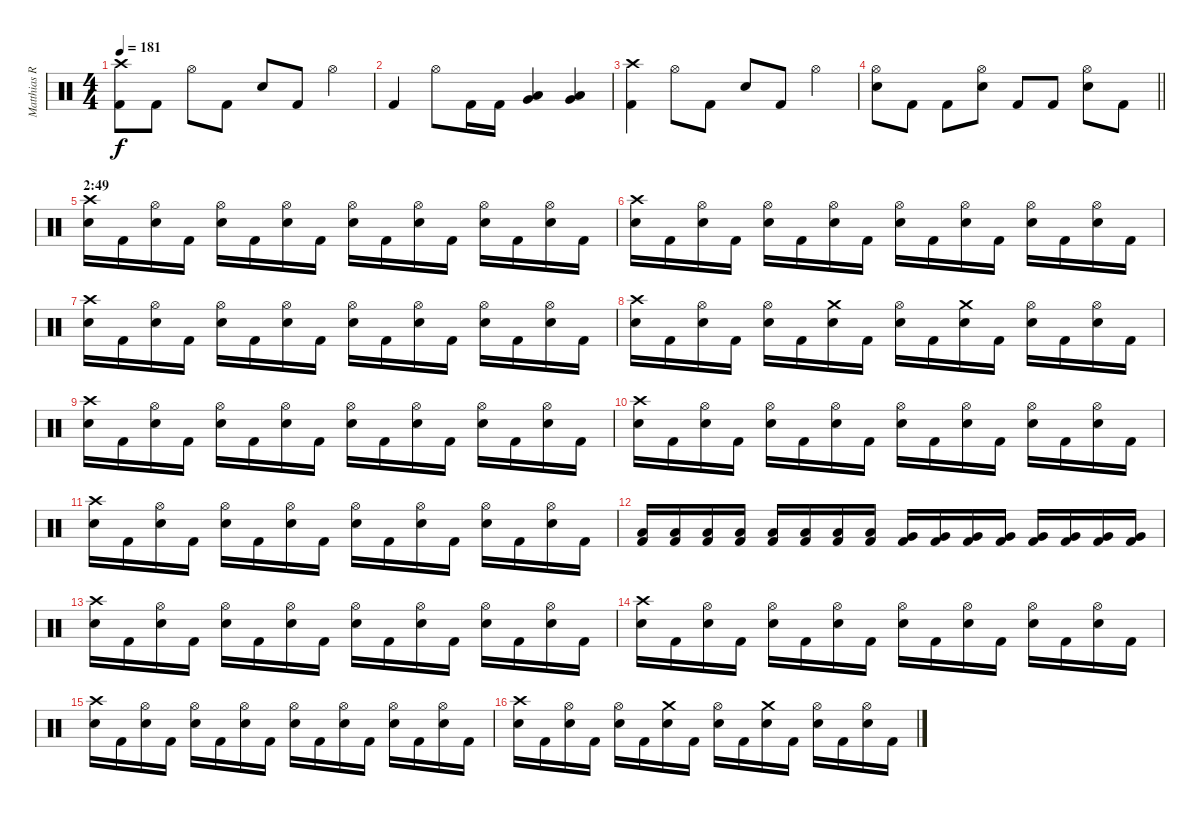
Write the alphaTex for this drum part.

\track ("Matthias R." "Matthias R") {instrument percussion}
\staff {score}
\articulation defaults
\ts (4 4)
\tempo 181
\clef neutral
\ks c
("Kick (hit) 2" "Crash high (hit)").8{dy f} "Kick (hit) 2".8 "Hi-Hat (open)".8 "Kick (hit) 2".8 "Snare (hit) 2".8 "Kick (hit) 2".8 "Hi-Hat (open)".4 |
"Kick (hit) 2".4 "Hi-Hat (open)".8 "Kick (hit) 2".16 "Kick (hit) 2".16 ("Low Tom (hit)" "Very Low Tom (hit)").4 ("Low Tom (hit)" "Very Low Tom (hit)").4 |
("Kick (hit) 2" "Crash high (hit)").4 "Hi-Hat (open)".8 "Kick (hit) 2".8 "Snare (hit) 2".8 "Kick (hit) 2".8 "Hi-Hat (open)".4 |
\barLineRight lightlight
("Snare (hit) 2" "Hi-Hat (open)").8 "Kick (hit) 2".8 "Kick (hit) 2".8 ("Snare (hit) 2" "Hi-Hat (open)").8 "Kick (hit) 2".8 "Kick (hit) 2".8 ("Snare (hit) 2" "Hi-Hat (open)").8 "Kick (hit) 2".8 |
\section ("" "2:49")
("Snare (hit) 2" "Crash high (hit)").16 "Kick (hit) 2".16 ("Snare (hit) 2" "Hi-Hat (open)").16 "Kick (hit) 2".16 ("Snare (hit) 2" "Hi-Hat (open)").16 "Kick (hit) 2".16 ("Snare (hit) 2" "Hi-Hat (open)").16 "Kick (hit) 2".16 ("Snare (hit) 2" "Hi-Hat (open)").16 "Kick (hit) 2".16 ("Snare (hit) 2" "Hi-Hat (open)").16 "Kick (hit) 2".16 ("Snare (hit) 2" "Hi-Hat (open)").16 "Kick (hit) 2".16 ("Snare (hit) 2" "Hi-Hat (open)").16 "Kick (hit) 2".16 |
("Snare (hit) 2" "Crash high (hit)").16 "Kick (hit) 2".16 ("Snare (hit) 2" "Hi-Hat (open)").16 "Kick (hit) 2".16 ("Snare (hit) 2" "Hi-Hat (open)").16 "Kick (hit) 2".16 ("Snare (hit) 2" "Hi-Hat (open)").16 "Kick (hit) 2".16 ("Snare (hit) 2" "Hi-Hat (open)").16 "Kick (hit) 2".16 ("Snare (hit) 2" "Hi-Hat (open)").16 "Kick (hit) 2".16 ("Snare (hit) 2" "Hi-Hat (open)").16 "Kick (hit) 2".16 ("Snare (hit) 2" "Hi-Hat (open)").16 "Kick (hit) 2".16 |
("Snare (hit) 2" "Crash high (hit)").16 "Kick (hit) 2".16 ("Snare (hit) 2" "Hi-Hat (open)").16 "Kick (hit) 2".16 ("Snare (hit) 2" "Hi-Hat (open)").16 "Kick (hit) 2".16 ("Snare (hit) 2" "Hi-Hat (open)").16 "Kick (hit) 2".16 ("Snare (hit) 2" "Hi-Hat (open)").16 "Kick (hit) 2".16 ("Snare (hit) 2" "Hi-Hat (open)").16 "Kick (hit) 2".16 ("Snare (hit) 2" "Hi-Hat (open)").16 "Kick (hit) 2".16 ("Snare (hit) 2" "Hi-Hat (open)").16 "Kick (hit) 2".16 |
("Snare (hit) 2" "Crash high (hit)").16 "Kick (hit) 2".16 ("Snare (hit) 2" "Hi-Hat (open)").16 "Kick (hit) 2".16 ("Snare (hit) 2" "Hi-Hat (open)").16 "Kick (hit) 2".16 ("Snare (hit) 2" "Crash medium (hit)").16 "Kick (hit) 2".16 ("Snare (hit) 2" "Hi-Hat (open)").16 "Kick (hit) 2".16 ("Snare (hit) 2" "Crash medium (hit)").16 "Kick (hit) 2".16 ("Snare (hit) 2" "Hi-Hat (open)").16 "Kick (hit) 2".16 ("Snare (hit) 2" "Hi-Hat (open)").16 "Kick (hit) 2".16 |
("Snare (hit) 2" "Crash high (hit)").16 "Kick (hit) 2".16 ("Snare (hit) 2" "Hi-Hat (open)").16 "Kick (hit) 2".16 ("Snare (hit) 2" "Hi-Hat (open)").16 "Kick (hit) 2".16 ("Snare (hit) 2" "Hi-Hat (open)").16 "Kick (hit) 2".16 ("Snare (hit) 2" "Hi-Hat (open)").16 "Kick (hit) 2".16 ("Snare (hit) 2" "Hi-Hat (open)").16 "Kick (hit) 2".16 ("Snare (hit) 2" "Hi-Hat (open)").16 "Kick (hit) 2".16 ("Snare (hit) 2" "Hi-Hat (open)").16 "Kick (hit) 2".16 |
("Snare (hit) 2" "Crash high (hit)").16 "Kick (hit) 2".16 ("Snare (hit) 2" "Hi-Hat (open)").16 "Kick (hit) 2".16 ("Snare (hit) 2" "Hi-Hat (open)").16 "Kick (hit) 2".16 ("Snare (hit) 2" "Hi-Hat (open)").16 "Kick (hit) 2".16 ("Snare (hit) 2" "Hi-Hat (open)").16 "Kick (hit) 2".16 ("Snare (hit) 2" "Hi-Hat (open)").16 "Kick (hit) 2".16 ("Snare (hit) 2" "Hi-Hat (open)").16 "Kick (hit) 2".16 ("Snare (hit) 2" "Hi-Hat (open)").16 "Kick (hit) 2".16 |
("Snare (hit) 2" "Crash high (hit)").16 "Kick (hit) 2".16 ("Snare (hit) 2" "Hi-Hat (open)").16 "Kick (hit) 2".16 ("Snare (hit) 2" "Hi-Hat (open)").16 "Kick (hit) 2".16 ("Snare (hit) 2" "Hi-Hat (open)").16 "Kick (hit) 2".16 ("Snare (hit) 2" "Hi-Hat (open)").16 "Kick (hit) 2".16 ("Snare (hit) 2" "Hi-Hat (open)").16 "Kick (hit) 2".16 ("Snare (hit) 2" "Hi-Hat (open)").16 "Kick (hit) 2".16 ("Snare (hit) 2" "Hi-Hat (open)").16 "Kick (hit) 2".16 |
("Kick (hit) 2" "Low Tom (hit)").16 ("Kick (hit) 2" "Low Tom (hit)").16 ("Kick (hit) 2" "Low Tom (hit)").16 ("Kick (hit) 2" "Low Tom (hit)").16 ("Kick (hit) 2" "Low Tom (hit)").16 ("Kick (hit) 2" "Low Tom (hit)").16 ("Kick (hit) 2" "Low Tom (hit)").16 ("Kick (hit) 2" "Low Tom (hit)").16 ("Kick (hit) 2" "Very Low Tom (hit)").16 ("Kick (hit) 2" "Very Low Tom (hit)").16 ("Kick (hit) 2" "Very Low Tom (hit)").16 ("Kick (hit) 2" "Very Low Tom (hit)").16 ("Kick (hit) 2" "Very Low Tom (hit)").16 ("Kick (hit) 2" "Very Low Tom (hit)").16 ("Kick (hit) 2" "Very Low Tom (hit)").16 ("Kick (hit) 2" "Very Low Tom (hit)").16 |
("Snare (hit) 2" "Crash high (hit)").16 "Kick (hit) 2".16 ("Snare (hit) 2" "Hi-Hat (open)").16 "Kick (hit) 2".16 ("Snare (hit) 2" "Hi-Hat (open)").16 "Kick (hit) 2".16 ("Snare (hit) 2" "Hi-Hat (open)").16 "Kick (hit) 2".16 ("Snare (hit) 2" "Hi-Hat (open)").16 "Kick (hit) 2".16 ("Snare (hit) 2" "Hi-Hat (open)").16 "Kick (hit) 2".16 ("Snare (hit) 2" "Hi-Hat (open)").16 "Kick (hit) 2".16 ("Snare (hit) 2" "Hi-Hat (open)").16 "Kick (hit) 2".16 |
("Snare (hit) 2" "Crash high (hit)").16 "Kick (hit) 2".16 ("Snare (hit) 2" "Hi-Hat (open)").16 "Kick (hit) 2".16 ("Snare (hit) 2" "Hi-Hat (open)").16 "Kick (hit) 2".16 ("Snare (hit) 2" "Hi-Hat (open)").16 "Kick (hit) 2".16 ("Snare (hit) 2" "Hi-Hat (open)").16 "Kick (hit) 2".16 ("Snare (hit) 2" "Hi-Hat (open)").16 "Kick (hit) 2".16 ("Snare (hit) 2" "Hi-Hat (open)").16 "Kick (hit) 2".16 ("Snare (hit) 2" "Hi-Hat (open)").16 "Kick (hit) 2".16 |
("Snare (hit) 2" "Crash high (hit)").16 "Kick (hit) 2".16 ("Snare (hit) 2" "Hi-Hat (open)").16 "Kick (hit) 2".16 ("Snare (hit) 2" "Hi-Hat (open)").16 "Kick (hit) 2".16 ("Snare (hit) 2" "Hi-Hat (open)").16 "Kick (hit) 2".16 ("Snare (hit) 2" "Hi-Hat (open)").16 "Kick (hit) 2".16 ("Snare (hit) 2" "Hi-Hat (open)").16 "Kick (hit) 2".16 ("Snare (hit) 2" "Hi-Hat (open)").16 "Kick (hit) 2".16 ("Snare (hit) 2" "Hi-Hat (open)").16 "Kick (hit) 2".16 |
("Snare (hit) 2" "Crash high (hit)").16 "Kick (hit) 2".16 ("Snare (hit) 2" "Hi-Hat (open)").16 "Kick (hit) 2".16 ("Snare (hit) 2" "Hi-Hat (open)").16 "Kick (hit) 2".16 ("Snare (hit) 2" "Crash medium (hit)").16 "Kick (hit) 2".16 ("Snare (hit) 2" "Hi-Hat (open)").16 "Kick (hit) 2".16 ("Snare (hit) 2" "Crash medium (hit)").16 "Kick (hit) 2".16 ("Snare (hit) 2" "Hi-Hat (open)").16 "Kick (hit) 2".16 ("Snare (hit) 2" "Hi-Hat (open)").16 "Kick (hit) 2".16
